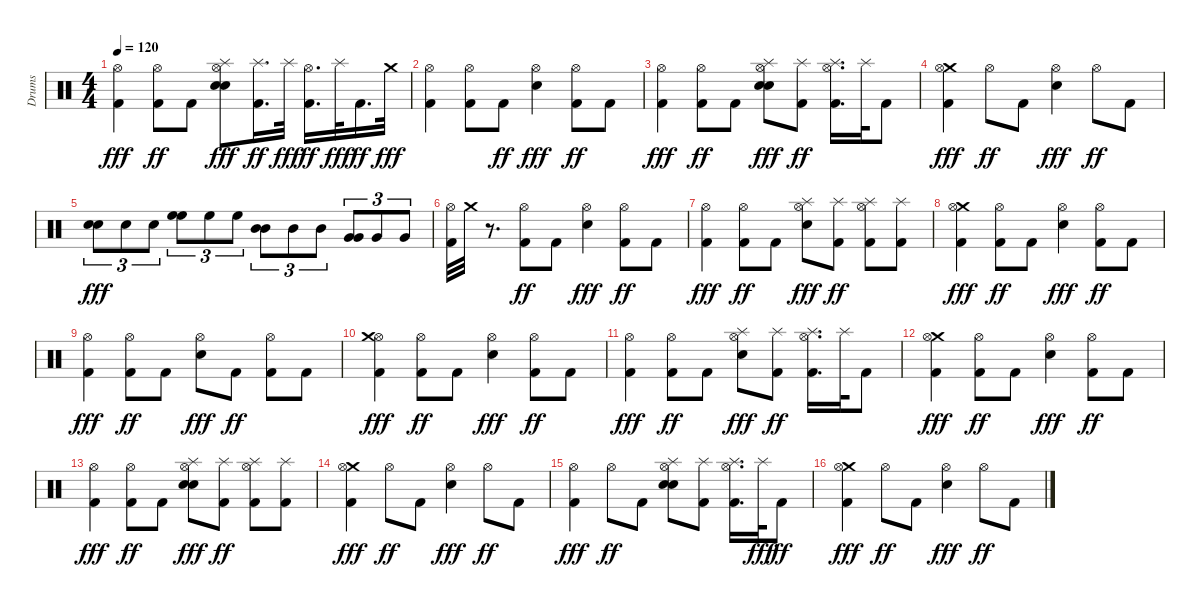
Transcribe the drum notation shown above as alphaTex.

\track ("Drums" "Drums") {instrument percussion}
\staff {score}
\articulation defaults
\ts (4 4)
\tempo 120
\clef neutral
\ks c
("Hi-Hat (open)" "Kick (hit) 2").4{dy fff} ("Hi-Hat (open)" "Kick (hit) 2").8{dy ff} "Kick (hit) 2".8 ("Snare (hit) 2" "Hi-Hat (open)" "Electric Snare (hit)" "Splash (hit)").8{dy fff} ("Splash (hit)" "Kick (hit) 2").16{d dy ff} "Splash (hit)".32{dy fff} ("Hi-Hat (open)" "Kick (hit) 2").16{d dy ff} "Splash (hit)".32{dy fff} "Kick (hit) 2".16{d dy ff} "Crash medium (hit)".32{dy fff} |
("Hi-Hat (open)" "Kick (hit) 2").4 ("Hi-Hat (open)" "Kick (hit) 2").8 "Kick (hit) 2".8{dy ff} ("Hi-Hat (open)" "Snare (hit) 2").4{dy fff} ("Hi-Hat (open)" "Kick (hit) 2").8{dy ff} "Kick (hit) 2".8 |
("Hi-Hat (open)" "Kick (hit) 2").4{dy fff} ("Hi-Hat (open)" "Kick (hit) 2").8{dy ff} "Kick (hit) 2".8 ("Snare (hit) 2" "Hi-Hat (open)" "Electric Snare (hit)" "Splash (hit)").8{dy fff} ("Splash (hit)" "Kick (hit) 2").8{dy ff} ("Splash (hit)" "Hi-Hat (open)" "Kick (hit) 2").16{d} "Splash (hit)".32 "Kick (hit) 2".8 |
("Crash medium (hit)" "Hi-Hat (open)" "Kick (hit) 2").4{dy fff} "Hi-Hat (open)".8{dy ff} "Kick (hit) 2".8 ("Hi-Hat (open)" "Snare (hit) 2").4{dy fff} "Hi-Hat (open)".8{dy ff} "Kick (hit) 2".8 |
("Snare (hit) 2" "Electric Snare (hit)").8{tu (3 2) dy fff} "Snare (hit) 2".8{tu (3 2)} "Snare (hit) 2".8{tu (3 2)} ("High Floor Tom (hit)" "High Floor Tom (hit)").8{tu (3 2)} "High Floor Tom (hit)".8{tu (3 2)} "High Floor Tom (hit)".8{tu (3 2)} ("Mid Tom (hit)" "Mid Tom (hit)").8{tu (3 2)} "Mid Tom (hit)".8{tu (3 2)} "Mid Tom (hit)".8{tu (3 2)} ("Very Low Tom (hit)" "Very Low Tom (hit)").8{tu (3 2)} "Very Low Tom (hit)".8{tu (3 2)} "Very Low Tom (hit)".8{tu (3 2)} |
("Hi-Hat (open)" "Kick (hit) 2").32 "Crash medium (hit)".32 r.8{d} ("Hi-Hat (open)" "Kick (hit) 2").8{dy ff} "Kick (hit) 2".8 ("Hi-Hat (open)" "Snare (hit) 2").4{dy fff} ("Hi-Hat (open)" "Kick (hit) 2").8{dy ff} "Kick (hit) 2".8 |
("Hi-Hat (open)" "Kick (hit) 2").4{dy fff} ("Hi-Hat (open)" "Kick (hit) 2").8{dy ff} "Kick (hit) 2".8 ("Splash (hit)" "Hi-Hat (open)" "Snare (hit) 2").8{dy fff} ("Splash (hit)" "Kick (hit) 2").8{dy ff} ("Splash (hit)" "Hi-Hat (open)" "Kick (hit) 2").8 ("Splash (hit)" "Kick (hit) 2").8 |
("Crash medium (hit)" "Hi-Hat (open)" "Kick (hit) 2").4{dy fff} ("Hi-Hat (open)" "Kick (hit) 2").8{dy ff} "Kick (hit) 2".8 ("Hi-Hat (open)" "Snare (hit) 2").4{dy fff} ("Hi-Hat (open)" "Kick (hit) 2").8{dy ff} "Kick (hit) 2".8 |
("Hi-Hat (open)" "Kick (hit) 2").4{dy fff} ("Hi-Hat (open)" "Kick (hit) 2").8{dy ff} "Kick (hit) 2".8 ("Hi-Hat (open)" "Snare (hit) 2").8{dy fff} "Kick (hit) 2".8{dy ff} ("Hi-Hat (open)" "Kick (hit) 2").8 "Kick (hit) 2".8 |
("Hi-Hat (open)" "Kick (hit) 2" "Crash medium (hit)").4{dy fff} ("Hi-Hat (open)" "Kick (hit) 2").8{dy ff} "Kick (hit) 2".8 ("Hi-Hat (open)" "Snare (hit) 2").4{dy fff} ("Hi-Hat (open)" "Kick (hit) 2").8{dy ff} "Kick (hit) 2".8 |
("Hi-Hat (open)" "Kick (hit) 2").4{dy fff} ("Hi-Hat (open)" "Kick (hit) 2").8{dy ff} "Kick (hit) 2".8 ("Splash (hit)" "Hi-Hat (open)" "Snare (hit) 2").8{dy fff} ("Splash (hit)" "Kick (hit) 2").8{dy ff} ("Splash (hit)" "Hi-Hat (open)" "Kick (hit) 2").16{d} "Splash (hit)".32 "Kick (hit) 2".8 |
("Crash medium (hit)" "Hi-Hat (open)" "Kick (hit) 2").4{dy fff} ("Hi-Hat (open)" "Kick (hit) 2").8{dy ff} "Kick (hit) 2".8 ("Hi-Hat (open)" "Snare (hit) 2").4{dy fff} ("Hi-Hat (open)" "Kick (hit) 2").8{dy ff} "Kick (hit) 2".8 |
("Hi-Hat (open)" "Kick (hit) 2").4{dy fff} ("Hi-Hat (open)" "Kick (hit) 2").8{dy ff} "Kick (hit) 2".8 ("Snare (hit) 2" "Hi-Hat (open)" "Electric Snare (hit)" "Splash (hit)").8{dy fff} ("Splash (hit)" "Kick (hit) 2").8{dy ff} ("Splash (hit)" "Hi-Hat (open)" "Kick (hit) 2").8 ("Splash (hit)" "Kick (hit) 2").8 |
("Crash medium (hit)" "Hi-Hat (open)" "Kick (hit) 2").4{dy fff} "Hi-Hat (open)".8{dy ff} "Kick (hit) 2".8 ("Hi-Hat (open)" "Snare (hit) 2").4{dy fff} "Hi-Hat (open)".8{dy ff} "Kick (hit) 2".8 |
("Hi-Hat (open)" "Kick (hit) 2").4{dy fff} "Hi-Hat (open)".8{dy ff} "Kick (hit) 2".8 ("Snare (hit) 2" "Splash (hit)" "Hi-Hat (open)" "Electric Snare (hit)").8 ("Splash (hit)" "Kick (hit) 2").8 ("Splash (hit)" "Hi-Hat (open)" "Kick (hit) 2").16{d} "Splash (hit)".32{dy fff} "Kick (hit) 2".8{dy ff} |
("Crash medium (hit)" "Hi-Hat (open)" "Kick (hit) 2").4{dy fff} "Hi-Hat (open)".8{dy ff} "Kick (hit) 2".8 ("Hi-Hat (open)" "Snare (hit) 2").4{dy fff} "Hi-Hat (open)".8{dy ff} "Kick (hit) 2".8
